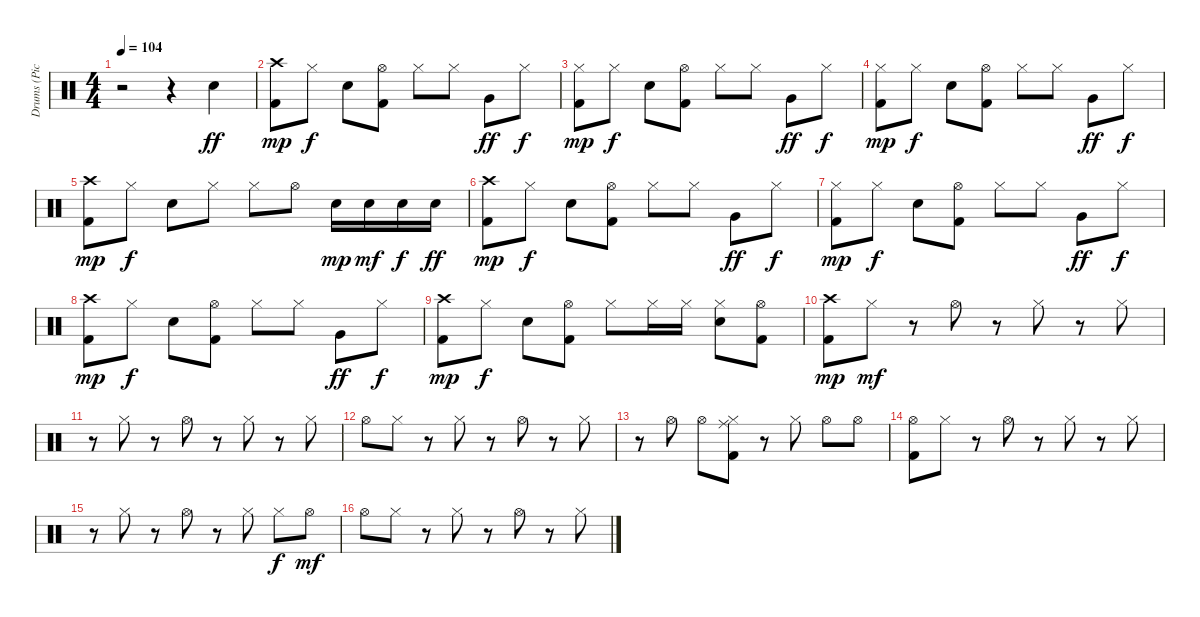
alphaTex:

\track ("Drums (Pick Whiters)" "Drums (Pic") {instrument percussion}
\staff {score}
\articulation defaults
\ts (4 4)
\tempo 104
\clef neutral
\ks c
r.2{dy ff} r.4 "Snare (hit) 2".4 |
("Kick (hit) 2" "Crash high (hit)").8{dy mp} "Hi-Hat (closed)".8{dy f} "Snare (hit) 2".8 ("Kick (hit) 2" "Hi-Hat (open)").8 "Hi-Hat (closed)".8 "Hi-Hat (closed)".8 "Very Low Tom (hit)".8{dy ff} "Hi-Hat (closed)".8{dy f} |
("Kick (hit) 2" "Hi-Hat (closed)").8{dy mp} "Hi-Hat (closed)".8{dy f} "Snare (hit) 2".8 ("Kick (hit) 2" "Hi-Hat (open)").8 "Hi-Hat (closed)".8 "Hi-Hat (closed)".8 "Very Low Tom (hit)".8{dy ff} "Hi-Hat (closed)".8{dy f} |
("Kick (hit) 2" "Hi-Hat (closed)").8{dy mp} "Hi-Hat (closed)".8{dy f} "Snare (hit) 2".8 ("Kick (hit) 2" "Hi-Hat (open)").8 "Hi-Hat (closed)".8 "Hi-Hat (closed)".8 "Very Low Tom (hit)".8{dy ff} "Hi-Hat (closed)".8{dy f} |
("Kick (hit) 2" "Crash high (hit)").8{dy mp} "Hi-Hat (closed)".8{dy f} "Snare (hit) 2".8 "Hi-Hat (closed)".8 "Hi-Hat (closed)".8 "Hi-Hat (open)".8 "Snare (hit) 2".16{dy mp} "Snare (hit) 2".16{dy mf} "Snare (hit) 2".16{dy f} "Snare (hit) 2".16{dy ff} |
("Kick (hit) 2" "Crash high (hit)").8{dy mp} "Hi-Hat (closed)".8{dy f} "Snare (hit) 2".8 ("Kick (hit) 2" "Hi-Hat (open)").8 "Hi-Hat (closed)".8 "Hi-Hat (closed)".8 "Very Low Tom (hit)".8{dy ff} "Hi-Hat (closed)".8{dy f} |
("Kick (hit) 2" "Hi-Hat (closed)").8{dy mp} "Hi-Hat (closed)".8{dy f} "Snare (hit) 2".8 ("Kick (hit) 2" "Hi-Hat (open)").8 "Hi-Hat (closed)".8 "Hi-Hat (closed)".8 "Very Low Tom (hit)".8{dy ff} "Hi-Hat (closed)".8{dy f} |
("Kick (hit) 2" "Crash high (hit)").8{dy mp} "Hi-Hat (closed)".8{dy f} "Snare (hit) 2".8 ("Kick (hit) 2" "Hi-Hat (open)").8 "Hi-Hat (closed)".8 "Hi-Hat (closed)".8 "Very Low Tom (hit)".8{dy ff} "Hi-Hat (closed)".8{dy f} |
("Kick (hit) 2" "Crash high (hit)").8{dy mp} "Hi-Hat (closed)".8{dy f} "Snare (hit) 2".8 ("Kick (hit) 2" "Hi-Hat (open)").8 "Hi-Hat (closed)".8 "Hi-Hat (closed)".16 "Hi-Hat (closed)".16 ("Snare (hit) 2" "Hi-Hat (closed)").8 ("Kick (hit) 2" "Hi-Hat (open)").8 |
("Kick (hit) 2" "Crash high (hit)").8{dy mp} "Hi-Hat (closed)".8{dy mf} r.8 "Hi-Hat (open)".8 r.8 "Hi-Hat (closed)".8 r.8 "Hi-Hat (closed)".8 |
r.8 "Hi-Hat (closed)".8 r.8 "Hi-Hat (open)".8 r.8 "Hi-Hat (closed)".8 r.8 "Hi-Hat (closed)".8 |
"Hi-Hat (open)".8 "Hi-Hat (closed)".8 r.8 "Hi-Hat (closed)".8 r.8 "Hi-Hat (open)".8 r.8 "Hi-Hat (closed)".8 |
r.8 "Hi-Hat (open)".8 "Hi-Hat (open)".8 ("Ride (middle)" "Kick (hit) 2" "Hi-Hat (closed)").8 r.8 "Hi-Hat (closed)".8 "Hi-Hat (open)".8 "Hi-Hat (open)".8 |
("Hi-Hat (open)" "Kick (hit) 2").8 "Hi-Hat (closed)".8 r.8 "Hi-Hat (open)".8 r.8 "Hi-Hat (closed)".8 r.8 "Hi-Hat (closed)".8 |
r.8 "Hi-Hat (closed)".8 r.8 "Hi-Hat (open)".8 r.8 "Hi-Hat (closed)".8 "Hi-Hat (closed)".8{dy f} "Hi-Hat (open)".8{dy mf} |
"Hi-Hat (open)".8 "Hi-Hat (closed)".8 r.8 "Hi-Hat (closed)".8 r.8 "Hi-Hat (open)".8 r.8 "Hi-Hat (closed)".8
